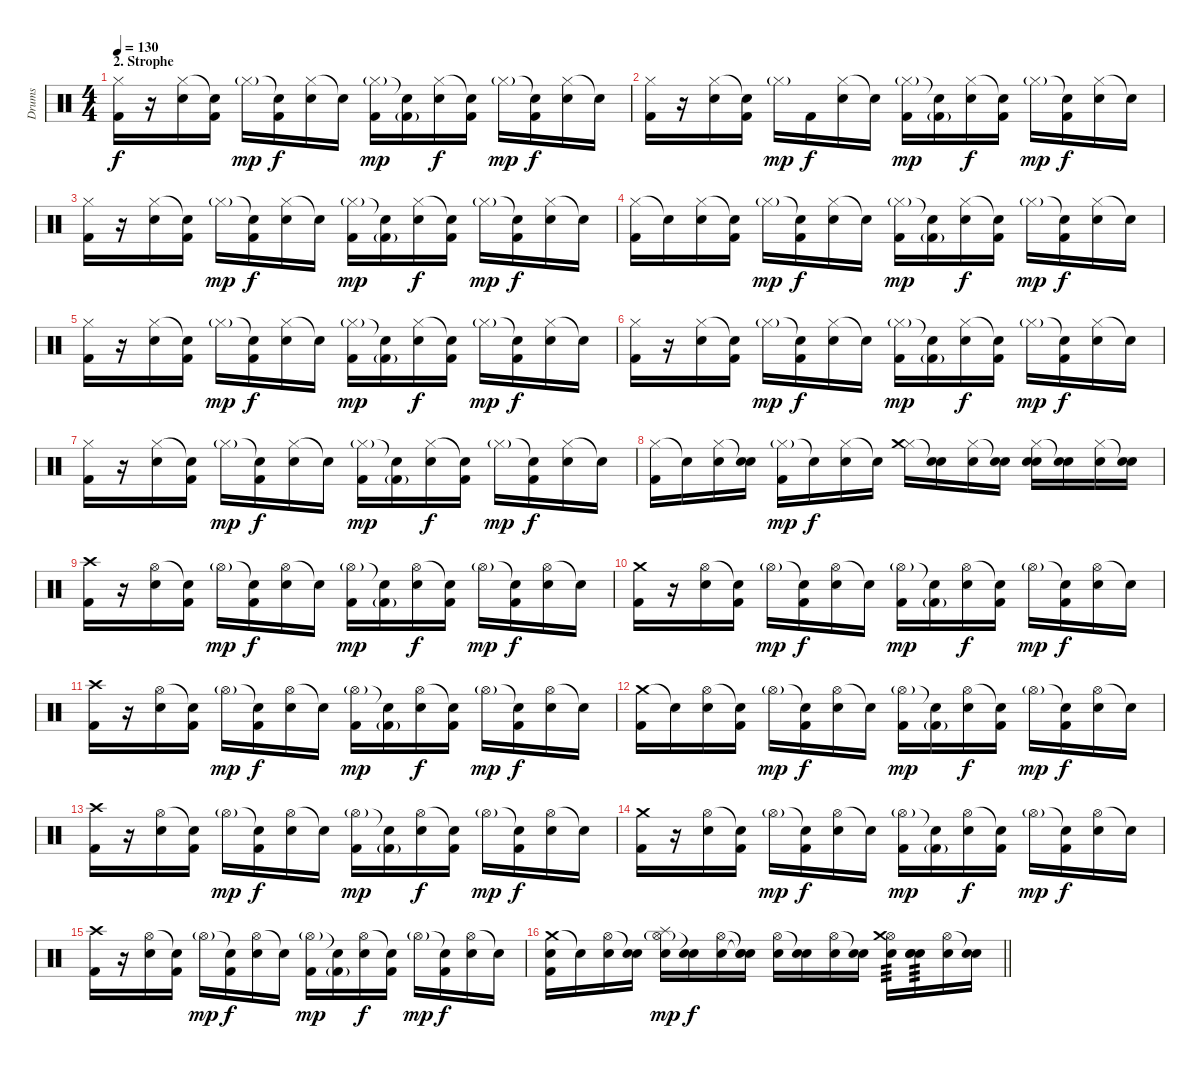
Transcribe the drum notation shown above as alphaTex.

\track ("Drums" "Drums") {instrument percussion}
\staff {score}
\articulation defaults
\ts (4 4)
\section ("" "2. Strophe")
\tempo 130
\clef neutral
\ks c
("Hi-Hat (closed)" "Kick (hit) 2").16{dy f} r.16 ("Hi-Hat (closed)" "Snare (hit) 2").16 ("Snare (hit)"{t} "Kick (hit) 2").16 "Hi-Hat (closed)"{g}.16{dy mp} ("Snare (hit)"{t} "Kick (hit) 2").16{dy f} ("Hi-Hat (closed)" "Snare (hit) 2").16 "Snare (hit)"{t}.16 ("Hi-Hat (closed)"{g} "Kick (hit) 2").16{dy mp} ("Snare (hit)"{t} "Kick (hit) 2"{g}).16 ("Hi-Hat (closed)" "Snare (hit) 2").16{dy f} ("Snare (hit)"{t} "Kick (hit) 2").16 "Hi-Hat (closed)"{g}.16{dy mp} ("Snare (hit)"{t} "Kick (hit) 2").16{dy f} ("Hi-Hat (closed)" "Snare (hit) 2").16 "Snare (hit)"{t}.16 |
("Hi-Hat (closed)" "Kick (hit) 2").16 r.16 ("Hi-Hat (closed)" "Snare (hit) 2").16 ("Snare (hit)"{t} "Kick (hit) 2").16 "Hi-Hat (closed)"{g}.16{dy mp} "Kick (hit) 2".16{dy f} ("Hi-Hat (closed)" "Snare (hit) 2").16 "Snare (hit)"{t}.16 ("Hi-Hat (closed)"{g} "Kick (hit) 2").16{dy mp} ("Snare (hit)"{t} "Kick (hit) 2"{g}).16 ("Hi-Hat (closed)" "Snare (hit) 2").16{dy f} ("Snare (hit)"{t} "Kick (hit) 2").16 "Hi-Hat (closed)"{g}.16{dy mp} ("Snare (hit)"{t} "Kick (hit) 2").16{dy f} ("Hi-Hat (closed)" "Snare (hit) 2").16 "Snare (hit)"{t}.16 |
("Hi-Hat (closed)" "Kick (hit) 2").16 r.16 ("Hi-Hat (closed)" "Snare (hit) 2").16 ("Snare (hit)"{t} "Kick (hit) 2").16 "Hi-Hat (closed)"{g}.16{dy mp} ("Snare (hit)"{t} "Kick (hit) 2").16{dy f} ("Hi-Hat (closed)" "Snare (hit) 2").16 "Snare (hit)"{t}.16 ("Hi-Hat (closed)"{g} "Kick (hit) 2").16{dy mp} ("Snare (hit)"{t} "Kick (hit) 2"{g}).16 ("Hi-Hat (closed)" "Snare (hit) 2").16{dy f} ("Snare (hit)"{t} "Kick (hit) 2").16 "Hi-Hat (closed)"{g}.16{dy mp} ("Snare (hit)"{t} "Kick (hit) 2").16{dy f} ("Hi-Hat (closed)" "Snare (hit) 2").16 "Snare (hit)"{t}.16 |
("Hi-Hat (closed)" "Kick (hit) 2").16 "Snare (hit)"{t}.16 ("Hi-Hat (closed)" "Snare (hit) 2").16 ("Snare (hit)"{t} "Kick (hit) 2").16 "Hi-Hat (closed)"{g}.16{dy mp} ("Snare (hit)"{t} "Kick (hit) 2").16{dy f} ("Hi-Hat (closed)" "Snare (hit) 2").16 "Snare (hit)"{t}.16 ("Hi-Hat (closed)"{g} "Kick (hit) 2").16{dy mp} ("Snare (hit)"{t} "Kick (hit) 2"{g}).16 ("Hi-Hat (closed)" "Snare (hit) 2").16{dy f} ("Snare (hit)"{t} "Kick (hit) 2").16 "Hi-Hat (closed)"{g}.16{dy mp} ("Snare (hit)"{t} "Kick (hit) 2").16{dy f} ("Hi-Hat (closed)" "Snare (hit) 2").16 "Snare (hit)"{t}.16 |
("Hi-Hat (closed)" "Kick (hit) 2").16 r.16 ("Hi-Hat (closed)" "Snare (hit) 2").16 ("Snare (hit)"{t} "Kick (hit) 2").16 "Hi-Hat (closed)"{g}.16{dy mp} ("Snare (hit)"{t} "Kick (hit) 2").16{dy f} ("Hi-Hat (closed)" "Snare (hit) 2").16 "Snare (hit)"{t}.16 ("Hi-Hat (closed)"{g} "Kick (hit) 2").16{dy mp} ("Snare (hit)"{t} "Kick (hit) 2"{g}).16 ("Hi-Hat (closed)" "Snare (hit) 2").16{dy f} ("Snare (hit)"{t} "Kick (hit) 2").16 "Hi-Hat (closed)"{g}.16{dy mp} ("Snare (hit)"{t} "Kick (hit) 2").16{dy f} ("Hi-Hat (closed)" "Snare (hit) 2").16 "Snare (hit)"{t}.16 |
("Hi-Hat (closed)" "Kick (hit) 2").16 r.16 ("Hi-Hat (closed)" "Snare (hit) 2").16 ("Snare (hit)"{t} "Kick (hit) 2").16 "Hi-Hat (closed)"{g}.16{dy mp} ("Snare (hit)"{t} "Kick (hit) 2").16{dy f} ("Hi-Hat (closed)" "Snare (hit) 2").16 "Snare (hit)"{t}.16 ("Hi-Hat (closed)"{g} "Kick (hit) 2").16{dy mp} ("Snare (hit)"{t} "Kick (hit) 2"{g}).16 ("Hi-Hat (closed)" "Snare (hit) 2").16{dy f} ("Snare (hit)"{t} "Kick (hit) 2").16 "Hi-Hat (closed)"{g}.16{dy mp} ("Snare (hit)"{t} "Kick (hit) 2").16{dy f} ("Hi-Hat (closed)" "Snare (hit) 2").16 "Snare (hit)"{t}.16 |
("Hi-Hat (closed)" "Kick (hit) 2").16 r.16 ("Hi-Hat (closed)" "Snare (hit) 2").16 ("Snare (hit)"{t} "Kick (hit) 2").16 "Hi-Hat (closed)"{g}.16{dy mp} ("Snare (hit)"{t} "Kick (hit) 2").16{dy f} ("Hi-Hat (closed)" "Snare (hit) 2").16 "Snare (hit)"{t}.16 ("Hi-Hat (closed)"{g} "Kick (hit) 2").16{dy mp} ("Snare (hit)"{t} "Kick (hit) 2"{g}).16 ("Hi-Hat (closed)" "Snare (hit) 2").16{dy f} ("Snare (hit)"{t} "Kick (hit) 2").16 "Hi-Hat (closed)"{g}.16{dy mp} ("Snare (hit)"{t} "Kick (hit) 2").16{dy f} ("Hi-Hat (closed)" "Snare (hit) 2").16 "Snare (hit)"{t}.16 |
("Hi-Hat (closed)" "Kick (hit) 2").16 "Snare (hit)"{t}.16 ("Hi-Hat (closed)" "Snare (hit) 2").16 ("Snare (hit)"{t} "Snare (hit) 2").16 ("Hi-Hat (closed)"{g} "Kick (hit) 2").16{dy mp} "Snare (hit)"{t}.16{dy f} ("Hi-Hat (closed)" "Snare (hit) 2").16 "Snare (hit)"{t}.16 ("Hi-Hat (closed)" "Crash medium (hit)").16 ("Snare (hit)"{t} "Snare (hit) 2").16 ("Hi-Hat (closed)" "Snare (hit) 2").16 ("Snare (hit)"{t} "Snare (hit) 2").16 ("Hi-Hat (closed)" "Electric Snare (hit)" "Snare (hit) 2").16 ("Snare (hit)"{t} "Snare (hit) 2").16 ("Hi-Hat (closed)" "Snare (hit) 2").16 ("Snare (hit)"{t} "Snare (hit) 2").16 |
("Crash high (hit)" "Kick (hit) 2").16 r.16 ("Hi-Hat (open)" "Snare (hit) 2").16 ("Snare (hit)"{t} "Kick (hit) 2").16 "Hi-Hat (open)"{g}.16{dy mp} ("Snare (hit)"{t} "Kick (hit) 2").16{dy f} ("Hi-Hat (open)" "Snare (hit) 2").16 "Snare (hit)"{t}.16 ("Hi-Hat (open)"{g} "Kick (hit) 2").16{dy mp} ("Snare (hit)"{t} "Kick (hit) 2"{g}).16 ("Hi-Hat (open)" "Snare (hit) 2").16{dy f} ("Snare (hit)"{t} "Kick (hit) 2").16 "Hi-Hat (open)"{g}.16{dy mp} ("Snare (hit)"{t} "Kick (hit) 2").16{dy f} ("Hi-Hat (open)" "Snare (hit) 2").16 "Snare (hit)"{t}.16 |
("Crash medium (hit)" "Kick (hit) 2").16 r.16 ("Hi-Hat (open)" "Snare (hit) 2").16 ("Snare (hit)"{t} "Kick (hit) 2").16 "Hi-Hat (open)"{g}.16{dy mp} ("Snare (hit)"{t} "Kick (hit) 2").16{dy f} ("Hi-Hat (open)" "Snare (hit) 2").16 "Snare (hit)"{t}.16 ("Hi-Hat (open)"{g} "Kick (hit) 2").16{dy mp} ("Snare (hit)"{t} "Kick (hit) 2"{g}).16 ("Hi-Hat (open)" "Snare (hit) 2").16{dy f} ("Snare (hit)"{t} "Kick (hit) 2").16 "Hi-Hat (open)"{g}.16{dy mp} ("Snare (hit)"{t} "Kick (hit) 2").16{dy f} ("Hi-Hat (open)" "Snare (hit) 2").16 "Snare (hit)"{t}.16 |
("Crash high (hit)" "Kick (hit) 2").16 r.16 ("Hi-Hat (open)" "Snare (hit) 2").16 ("Snare (hit)"{t} "Kick (hit) 2").16 "Hi-Hat (open)"{g}.16{dy mp} ("Snare (hit)"{t} "Kick (hit) 2").16{dy f} ("Hi-Hat (open)" "Snare (hit) 2").16 "Snare (hit)"{t}.16 ("Hi-Hat (open)"{g} "Kick (hit) 2").16{dy mp} ("Snare (hit)"{t} "Kick (hit) 2"{g}).16 ("Hi-Hat (open)" "Snare (hit) 2").16{dy f} ("Snare (hit)"{t} "Kick (hit) 2").16 "Hi-Hat (open)"{g}.16{dy mp} ("Snare (hit)"{t} "Kick (hit) 2").16{dy f} ("Hi-Hat (open)" "Snare (hit) 2").16 "Snare (hit)"{t}.16 |
("Crash medium (hit)" "Kick (hit) 2").16 "Snare (hit)"{t}.16 ("Hi-Hat (open)" "Snare (hit) 2").16 ("Snare (hit)"{t} "Kick (hit) 2").16 "Hi-Hat (open)"{g}.16{dy mp} ("Snare (hit)"{t} "Kick (hit) 2").16{dy f} ("Hi-Hat (open)" "Snare (hit) 2").16 "Snare (hit)"{t}.16 ("Hi-Hat (open)"{g} "Kick (hit) 2").16{dy mp} ("Snare (hit)"{t} "Kick (hit) 2"{g}).16 ("Hi-Hat (open)" "Snare (hit) 2").16{dy f} ("Snare (hit)"{t} "Kick (hit) 2").16 "Hi-Hat (open)"{g}.16{dy mp} ("Snare (hit)"{t} "Kick (hit) 2").16{dy f} ("Hi-Hat (open)" "Snare (hit) 2").16 "Snare (hit)"{t}.16 |
("Crash high (hit)" "Kick (hit) 2").16 r.16 ("Hi-Hat (open)" "Snare (hit) 2").16 ("Snare (hit)"{t} "Kick (hit) 2").16 "Hi-Hat (open)"{g}.16{dy mp} ("Snare (hit)"{t} "Kick (hit) 2").16{dy f} ("Hi-Hat (open)" "Snare (hit) 2").16 "Snare (hit)"{t}.16 ("Hi-Hat (open)"{g} "Kick (hit) 2").16{dy mp} ("Snare (hit)"{t} "Kick (hit) 2"{g}).16 ("Hi-Hat (open)" "Snare (hit) 2").16{dy f} ("Snare (hit)"{t} "Kick (hit) 2").16 "Hi-Hat (open)"{g}.16{dy mp} ("Snare (hit)"{t} "Kick (hit) 2").16{dy f} ("Hi-Hat (open)" "Snare (hit) 2").16 "Snare (hit)"{t}.16 |
("Crash medium (hit)" "Kick (hit) 2").16 r.16 ("Hi-Hat (open)" "Snare (hit) 2").16 ("Snare (hit)"{t} "Kick (hit) 2").16 "Hi-Hat (open)"{g}.16{dy mp} ("Snare (hit)"{t} "Kick (hit) 2").16{dy f} ("Hi-Hat (open)" "Snare (hit) 2").16 "Snare (hit)"{t}.16 ("Hi-Hat (open)"{g} "Kick (hit) 2").16{dy mp} ("Snare (hit)"{t} "Kick (hit) 2"{g}).16 ("Hi-Hat (open)" "Snare (hit) 2").16{dy f} ("Snare (hit)"{t} "Kick (hit) 2").16 "Hi-Hat (open)"{g}.16{dy mp} ("Snare (hit)"{t} "Kick (hit) 2").16{dy f} ("Hi-Hat (open)" "Snare (hit) 2").16 "Snare (hit)"{t}.16 |
("Crash high (hit)" "Kick (hit) 2").16 r.16 ("Hi-Hat (open)" "Snare (hit) 2").16 ("Snare (hit)"{t} "Kick (hit) 2").16 "Hi-Hat (open)"{g}.16{dy mp} ("Snare (hit)"{t} "Kick (hit) 2").16{dy f} ("Hi-Hat (open)" "Snare (hit) 2").16 "Snare (hit)"{t}.16 ("Hi-Hat (open)"{g} "Kick (hit) 2").16{dy mp} ("Snare (hit)"{t} "Kick (hit) 2"{g}).16 ("Hi-Hat (open)" "Snare (hit) 2").16{dy f} ("Snare (hit)"{t} "Kick (hit) 2").16 "Hi-Hat (open)"{g}.16{dy mp} ("Snare (hit)"{t} "Kick (hit) 2").16{dy f} ("Hi-Hat (open)" "Snare (hit) 2").16 "Snare (hit)"{t}.16 |
\barLineRight lightlight
("Crash medium (hit)" "Snare (hit) 2" "Kick (hit) 2").16 "Snare (hit)"{t}.16 ("Hi-Hat (open)" "Snare (hit) 2").16 ("Snare (hit)"{t} "Snare (hit) 2").16 ("Hi-Hat (open)"{g} "Splash (hit)" "Snare (hit) 2").16{dy mp} ("Snare (hit)"{t} "Snare (hit) 2").16{dy f} ("Hi-Hat (open)" "Snare (hit) 2").16 ("Snare (hit)"{t} "Snare (hit)"{t} "Snare (hit) 2").16 ("Hi-Hat (open)" "Snare (hit) 2").16 ("Snare (hit)"{t} "Snare (hit) 2").16 ("Hi-Hat (open)" "Snare (hit) 2").16 ("Snare (hit)"{t} "Snare (hit) 2").16 ("Hi-Hat (open)" "Crash medium (hit)" "Snare (hit) 2").16{tp 3} ("Snare (hit) 2" "Snare (hit) 2" "Snare (hit) 2").16{tp 3} ("Hi-Hat (open)" "Snare (hit) 2").16 ("Snare (hit)"{t} "Snare (hit) 2").16
